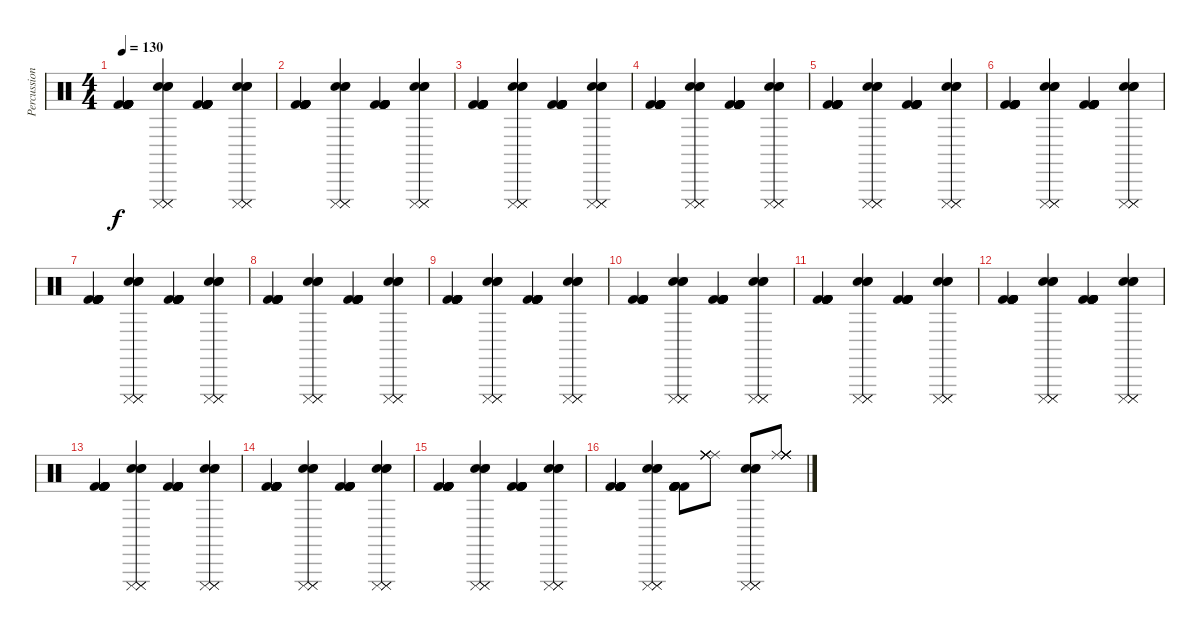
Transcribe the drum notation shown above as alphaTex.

\track ("Percussion" "Percussion") {instrument percussion}
\staff {score}
\articulation defaults
\ts (4 4)
\tempo 130
\clef neutral
\ks c
("Kick (hit) 2" "Kick (hit) 2" "Kick (hit) 2" "Kick (hit) 2" "Kick (hit) 2" "Kick (hit) 2").4{dy f} ("Electric Snare (hit)" "Cuica (mute)" "Electric Snare (hit)" "Cuica (mute)" "Electric Snare (hit)" "Cuica (mute)").4 ("Kick (hit) 2" "Kick (hit) 2" "Kick (hit) 2" "Kick (hit) 2" "Kick (hit) 2" "Kick (hit) 2").4 ("Electric Snare (hit)" "Cuica (mute)" "Electric Snare (hit)" "Cuica (mute)" "Electric Snare (hit)" "Cuica (mute)").4 |
("Kick (hit) 2" "Kick (hit) 2" "Kick (hit) 2" "Kick (hit) 2" "Kick (hit) 2" "Kick (hit) 2").4 ("Electric Snare (hit)" "Cuica (mute)" "Electric Snare (hit)" "Cuica (mute)" "Electric Snare (hit)" "Cuica (mute)").4 ("Kick (hit) 2" "Kick (hit) 2" "Kick (hit) 2" "Kick (hit) 2" "Kick (hit) 2" "Kick (hit) 2").4 ("Electric Snare (hit)" "Cuica (mute)" "Electric Snare (hit)" "Cuica (mute)" "Electric Snare (hit)" "Cuica (mute)").4 |
("Kick (hit) 2" "Kick (hit) 2" "Kick (hit) 2" "Kick (hit) 2" "Kick (hit) 2" "Kick (hit) 2").4 ("Electric Snare (hit)" "Cuica (mute)" "Electric Snare (hit)" "Cuica (mute)" "Electric Snare (hit)" "Cuica (mute)").4 ("Kick (hit) 2" "Kick (hit) 2" "Kick (hit) 2" "Kick (hit) 2" "Kick (hit) 2" "Kick (hit) 2").4 ("Electric Snare (hit)" "Cuica (mute)" "Electric Snare (hit)" "Cuica (mute)" "Electric Snare (hit)" "Cuica (mute)").4 |
("Kick (hit) 2" "Kick (hit) 2" "Kick (hit) 2" "Kick (hit) 2" "Kick (hit) 2" "Kick (hit) 2").4 ("Electric Snare (hit)" "Cuica (mute)" "Electric Snare (hit)" "Cuica (mute)" "Electric Snare (hit)" "Cuica (mute)").4 ("Kick (hit) 2" "Kick (hit) 2" "Kick (hit) 2" "Kick (hit) 2" "Kick (hit) 2" "Kick (hit) 2").4 ("Electric Snare (hit)" "Cuica (mute)" "Electric Snare (hit)" "Cuica (mute)" "Electric Snare (hit)" "Cuica (mute)").4 |
("Kick (hit) 2" "Kick (hit) 2" "Kick (hit) 2" "Kick (hit) 2" "Kick (hit) 2" "Kick (hit) 2").4 ("Electric Snare (hit)" "Cuica (mute)" "Electric Snare (hit)" "Cuica (mute)" "Electric Snare (hit)" "Cuica (mute)").4 ("Kick (hit) 2" "Kick (hit) 2" "Kick (hit) 2" "Kick (hit) 2" "Kick (hit) 2" "Kick (hit) 2").4 ("Electric Snare (hit)" "Cuica (mute)" "Electric Snare (hit)" "Cuica (mute)" "Electric Snare (hit)" "Cuica (mute)").4 |
("Kick (hit) 2" "Kick (hit) 2" "Kick (hit) 2" "Kick (hit) 2" "Kick (hit) 2" "Kick (hit) 2").4 ("Electric Snare (hit)" "Cuica (mute)" "Electric Snare (hit)" "Cuica (mute)" "Electric Snare (hit)" "Cuica (mute)").4 ("Kick (hit) 2" "Kick (hit) 2" "Kick (hit) 2" "Kick (hit) 2" "Kick (hit) 2" "Kick (hit) 2").4 ("Electric Snare (hit)" "Cuica (mute)" "Electric Snare (hit)" "Cuica (mute)" "Electric Snare (hit)" "Cuica (mute)").4 |
("Kick (hit) 2" "Kick (hit) 2" "Kick (hit) 2" "Kick (hit) 2" "Kick (hit) 2" "Kick (hit) 2").4 ("Electric Snare (hit)" "Cuica (mute)" "Electric Snare (hit)" "Cuica (mute)" "Electric Snare (hit)" "Cuica (mute)").4 ("Kick (hit) 2" "Kick (hit) 2" "Kick (hit) 2" "Kick (hit) 2" "Kick (hit) 2" "Kick (hit) 2").4 ("Electric Snare (hit)" "Cuica (mute)" "Electric Snare (hit)" "Cuica (mute)" "Electric Snare (hit)" "Cuica (mute)").4 |
("Kick (hit) 2" "Kick (hit) 2" "Kick (hit) 2" "Kick (hit) 2" "Kick (hit) 2" "Kick (hit) 2").4 ("Electric Snare (hit)" "Cuica (mute)" "Electric Snare (hit)" "Cuica (mute)" "Electric Snare (hit)" "Cuica (mute)").4 ("Kick (hit) 2" "Kick (hit) 2" "Kick (hit) 2" "Kick (hit) 2" "Kick (hit) 2" "Kick (hit) 2").4 ("Electric Snare (hit)" "Cuica (mute)" "Electric Snare (hit)" "Cuica (mute)" "Electric Snare (hit)" "Cuica (mute)").4 |
("Kick (hit) 2" "Kick (hit) 2" "Kick (hit) 2" "Kick (hit) 2" "Kick (hit) 2" "Kick (hit) 2").4 ("Electric Snare (hit)" "Cuica (mute)" "Electric Snare (hit)" "Cuica (mute)" "Electric Snare (hit)" "Cuica (mute)").4 ("Kick (hit) 2" "Kick (hit) 2" "Kick (hit) 2" "Kick (hit) 2" "Kick (hit) 2" "Kick (hit) 2").4 ("Electric Snare (hit)" "Cuica (mute)" "Electric Snare (hit)" "Cuica (mute)" "Electric Snare (hit)" "Cuica (mute)").4 |
("Kick (hit) 2" "Kick (hit) 2" "Kick (hit) 2" "Kick (hit) 2" "Kick (hit) 2" "Kick (hit) 2").4 ("Electric Snare (hit)" "Cuica (mute)" "Electric Snare (hit)" "Cuica (mute)" "Electric Snare (hit)" "Cuica (mute)").4 ("Kick (hit) 2" "Kick (hit) 2" "Kick (hit) 2" "Kick (hit) 2" "Kick (hit) 2" "Kick (hit) 2").4 ("Electric Snare (hit)" "Cuica (mute)" "Electric Snare (hit)" "Cuica (mute)" "Electric Snare (hit)" "Cuica (mute)").4 |
("Kick (hit) 2" "Kick (hit) 2" "Kick (hit) 2" "Kick (hit) 2" "Kick (hit) 2" "Kick (hit) 2").4 ("Electric Snare (hit)" "Cuica (mute)" "Electric Snare (hit)" "Cuica (mute)" "Electric Snare (hit)" "Cuica (mute)").4 ("Kick (hit) 2" "Kick (hit) 2" "Kick (hit) 2" "Kick (hit) 2" "Kick (hit) 2" "Kick (hit) 2").4 ("Electric Snare (hit)" "Cuica (mute)" "Electric Snare (hit)" "Cuica (mute)" "Electric Snare (hit)" "Cuica (mute)").4 |
("Kick (hit) 2" "Kick (hit) 2" "Kick (hit) 2" "Kick (hit) 2" "Kick (hit) 2" "Kick (hit) 2").4 ("Electric Snare (hit)" "Cuica (mute)" "Electric Snare (hit)" "Cuica (mute)" "Electric Snare (hit)" "Cuica (mute)").4 ("Kick (hit) 2" "Kick (hit) 2" "Kick (hit) 2" "Kick (hit) 2" "Kick (hit) 2" "Kick (hit) 2").4 ("Electric Snare (hit)" "Cuica (mute)" "Electric Snare (hit)" "Cuica (mute)" "Electric Snare (hit)" "Cuica (mute)").4 |
("Kick (hit) 2" "Kick (hit) 2" "Kick (hit) 2" "Kick (hit) 2" "Kick (hit) 2" "Kick (hit) 2").4 ("Electric Snare (hit)" "Cuica (mute)" "Electric Snare (hit)" "Cuica (mute)" "Electric Snare (hit)" "Cuica (mute)").4 ("Kick (hit) 2" "Kick (hit) 2" "Kick (hit) 2" "Kick (hit) 2" "Kick (hit) 2" "Kick (hit) 2").4 ("Electric Snare (hit)" "Cuica (mute)" "Electric Snare (hit)" "Cuica (mute)" "Electric Snare (hit)" "Cuica (mute)").4 |
("Kick (hit) 2" "Kick (hit) 2" "Kick (hit) 2" "Kick (hit) 2" "Kick (hit) 2" "Kick (hit) 2").4 ("Electric Snare (hit)" "Cuica (mute)" "Electric Snare (hit)" "Cuica (mute)" "Electric Snare (hit)" "Cuica (mute)").4 ("Kick (hit) 2" "Kick (hit) 2" "Kick (hit) 2" "Kick (hit) 2" "Kick (hit) 2" "Kick (hit) 2").4 ("Electric Snare (hit)" "Cuica (mute)" "Electric Snare (hit)" "Cuica (mute)" "Electric Snare (hit)" "Cuica (mute)").4 |
("Kick (hit) 2" "Kick (hit) 2" "Kick (hit) 2" "Kick (hit) 2" "Kick (hit) 2" "Kick (hit) 2").4 ("Electric Snare (hit)" "Cuica (mute)" "Electric Snare (hit)" "Cuica (mute)" "Electric Snare (hit)" "Cuica (mute)").4 ("Kick (hit) 2" "Kick (hit) 2" "Kick (hit) 2" "Kick (hit) 2" "Kick (hit) 2" "Kick (hit) 2").4 ("Electric Snare (hit)" "Cuica (mute)" "Electric Snare (hit)" "Cuica (mute)" "Electric Snare (hit)" "Cuica (mute)").4 |
("Kick (hit) 2" "Kick (hit) 2" "Kick (hit) 2" "Kick (hit) 2" "Kick (hit) 2" "Kick (hit) 2").4 ("Electric Snare (hit)" "Cuica (mute)" "Electric Snare (hit)" "Cuica (mute)" "Electric Snare (hit)" "Cuica (mute)").4 ("Kick (hit) 2" "Kick (hit) 2" "Kick (hit) 2" "Kick (hit) 2" "Kick (hit) 2" "Kick (hit) 2").8 ("Ride (middle)" "Ride (middle)" "Ride (middle)" "Ride (middle)" "Ride (middle)" "Ride (middle)").8 ("Electric Snare (hit)" "Cuica (mute)" "Electric Snare (hit)" "Cuica (mute)" "Electric Snare (hit)" "Cuica (mute)").8 ("Ride (middle)" "Ride (middle)" "Ride (middle)" "Ride (middle)" "Ride (middle)" "Ride (middle)").8
